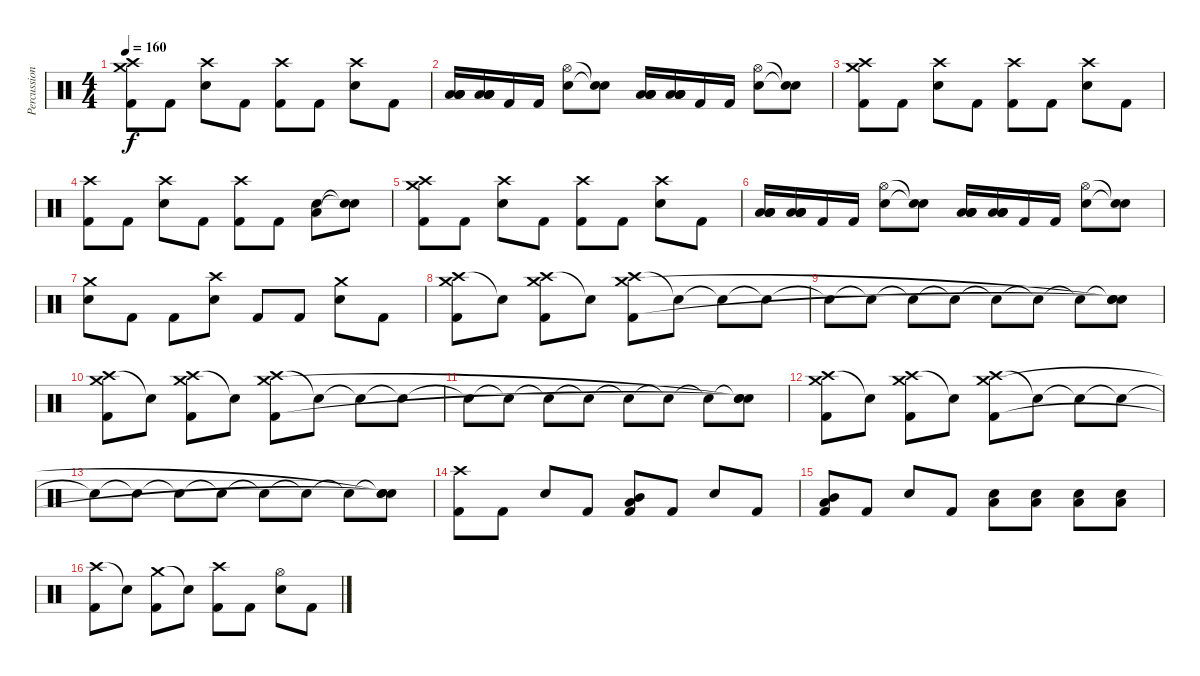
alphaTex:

\track ("Percussion" "Percussion") {instrument percussion}
\staff {score}
\articulation defaults
\ts (4 4)
\tempo 160
\clef neutral
\ks c
("Crash high (hit)" "Crash medium (hit)" "Kick (hit) 2").8{dy f} "Kick (hit) 2".8 ("Crash high (hit)" "Snare (hit) 2").8 "Kick (hit) 2".8 ("Crash high (hit)" "Kick (hit) 2").8 "Kick (hit) 2".8 ("Crash high (hit)" "Snare (hit) 2").8 "Kick (hit) 2".8 |
("Low Floor Tom (hit)" "Low Floor Tom (hit)" "Low Floor Tom (hit)" "Low Floor Tom (hit)").16 ("Low Floor Tom (hit)" "Low Floor Tom (hit)" "Low Floor Tom (hit)" "Low Floor Tom (hit)").16 "Kick (hit) 2".16 "Kick (hit) 2".16 ("Hi-Hat (open)" "Snare (hit) 2").8 ("Snare (hit)"{t} "Snare (hit)"{t}).8 ("Low Floor Tom (hit)" "Low Floor Tom (hit)" "Low Floor Tom (hit)" "Low Floor Tom (hit)").16 ("Low Floor Tom (hit)" "Low Floor Tom (hit)" "Low Floor Tom (hit)" "Low Floor Tom (hit)").16 "Kick (hit) 2".16 "Kick (hit) 2".16 ("Hi-Hat (open)" "Snare (hit) 2").8 ("Snare (hit)"{t} "Snare (hit)"{t}).8 |
("Crash high (hit)" "Crash medium (hit)" "Kick (hit) 2").8 "Kick (hit) 2".8 ("Crash high (hit)" "Snare (hit) 2").8 "Kick (hit) 2".8 ("Crash high (hit)" "Kick (hit) 2").8 "Kick (hit) 2".8 ("Crash high (hit)" "Snare (hit) 2").8 "Kick (hit) 2".8 |
("Crash high (hit)" "Kick (hit) 2").8 "Kick (hit) 2".8 ("Crash high (hit)" "Snare (hit) 2").8 "Kick (hit) 2".8 ("Crash high (hit)" "Kick (hit) 2").8 "Kick (hit) 2".8 ("Low Floor Tom (hit)" "Snare (hit) 2").8 ("Snare (hit)"{t} "Snare (hit)"{t}).8 |
("Crash high (hit)" "Crash medium (hit)" "Kick (hit) 2").8 "Kick (hit) 2".8 ("Crash high (hit)" "Snare (hit) 2").8 "Kick (hit) 2".8 ("Crash high (hit)" "Kick (hit) 2").8 "Kick (hit) 2".8 ("Crash high (hit)" "Snare (hit) 2").8 "Kick (hit) 2".8 |
("Low Floor Tom (hit)" "Low Floor Tom (hit)" "Low Floor Tom (hit)" "Low Floor Tom (hit)").16 ("Low Floor Tom (hit)" "Low Floor Tom (hit)" "Low Floor Tom (hit)" "Low Floor Tom (hit)").16 "Kick (hit) 2".16 "Kick (hit) 2".16 ("Hi-Hat (open)" "Snare (hit) 2").8 ("Snare (hit)"{t} "Snare (hit)"{t}).8 ("Low Floor Tom (hit)" "Low Floor Tom (hit)" "Low Floor Tom (hit)" "Low Floor Tom (hit)").16 ("Low Floor Tom (hit)" "Low Floor Tom (hit)" "Low Floor Tom (hit)" "Low Floor Tom (hit)").16 "Kick (hit) 2".16 "Kick (hit) 2".16 ("Hi-Hat (open)" "Snare (hit) 2").8 ("Snare (hit)"{t} "Snare (hit)"{t}).8 |
("Crash medium (hit)" "Snare (hit) 2").8 "Kick (hit) 2".8 "Kick (hit) 2".8 ("Crash high (hit)" "Snare (hit) 2").8 "Kick (hit) 2".8 "Kick (hit) 2".8 ("Crash medium (hit)" "Snare (hit) 2").8 "Kick (hit) 2".8 |
("Crash high (hit)" "Crash medium (hit)" "Kick (hit) 2").8 "Snare (hit)"{t}.8 ("Crash high (hit)" "Crash medium (hit)" "Kick (hit) 2").8 "Snare (hit)"{t}.8 ("Crash high (hit)" "Crash medium (hit)" "Kick (hit) 2").8 "Snare (hit)"{t}.8 "Snare (hit)"{t}.8 "Snare (hit)"{t}.8 |
"Snare (hit)"{t}.8 "Snare (hit)"{t}.8 "Snare (hit)"{t}.8 "Snare (hit)"{t}.8 "Snare (hit)"{t}.8 "Snare (hit)"{t}.8 "Snare (hit)"{t}.8 ("Snare (hit)"{t} "Snare (hit)"{t} "Snare (hit)"{t}).8 |
("Crash high (hit)" "Crash medium (hit)" "Kick (hit) 2").8 "Snare (hit)"{t}.8 ("Crash high (hit)" "Crash medium (hit)" "Kick (hit) 2").8 "Snare (hit)"{t}.8 ("Crash high (hit)" "Crash medium (hit)" "Kick (hit) 2").8 "Snare (hit)"{t}.8 "Snare (hit)"{t}.8 "Snare (hit)"{t}.8 |
"Snare (hit)"{t}.8 "Snare (hit)"{t}.8 "Snare (hit)"{t}.8 "Snare (hit)"{t}.8 "Snare (hit)"{t}.8 "Snare (hit)"{t}.8 "Snare (hit)"{t}.8 ("Snare (hit)"{t} "Snare (hit)"{t} "Snare (hit)"{t}).8 |
("Crash high (hit)" "Crash medium (hit)" "Kick (hit) 2").8 "Snare (hit)"{t}.8 ("Crash high (hit)" "Crash medium (hit)" "Kick (hit) 2").8 "Snare (hit)"{t}.8 ("Crash high (hit)" "Crash medium (hit)" "Kick (hit) 2").8 "Snare (hit)"{t}.8 "Snare (hit)"{t}.8 "Snare (hit)"{t}.8 |
"Snare (hit)"{t}.8 "Snare (hit)"{t}.8 "Snare (hit)"{t}.8 "Snare (hit)"{t}.8 "Snare (hit)"{t}.8 "Snare (hit)"{t}.8 "Snare (hit)"{t}.8 ("Snare (hit)"{t} "Snare (hit)"{t} "Snare (hit)"{t}).8 |
("Crash high (hit)" "Kick (hit) 2").8 "Kick (hit) 2".8 "Snare (hit) 2".8 "Kick (hit) 2".8 ("Low Floor Tom (hit)" "Mid Tom (hit)" "Kick (hit) 2").8 "Kick (hit) 2".8 "Snare (hit) 2".8 "Kick (hit) 2".8 |
("Low Floor Tom (hit)" "Mid Tom (hit)" "Kick (hit) 2").8 "Kick (hit) 2".8 "Snare (hit) 2".8 "Kick (hit) 2".8 ("Low Floor Tom (hit)" "Snare (hit) 2").8 ("Low Floor Tom (hit)" "Snare (hit) 2").8 ("Low Floor Tom (hit)" "Snare (hit) 2").8 ("Low Floor Tom (hit)" "Snare (hit) 2").8 |
("Crash high (hit)" "Kick (hit) 2").8 "Snare (hit)"{t}.8 ("Crash medium (hit)" "Kick (hit) 2").8 "Snare (hit)"{t}.8 ("Crash high (hit)" "Kick (hit) 2").8 "Kick (hit) 2".8 ("Hi-Hat (open)" "Snare (hit) 2").8 "Kick (hit) 2".8
